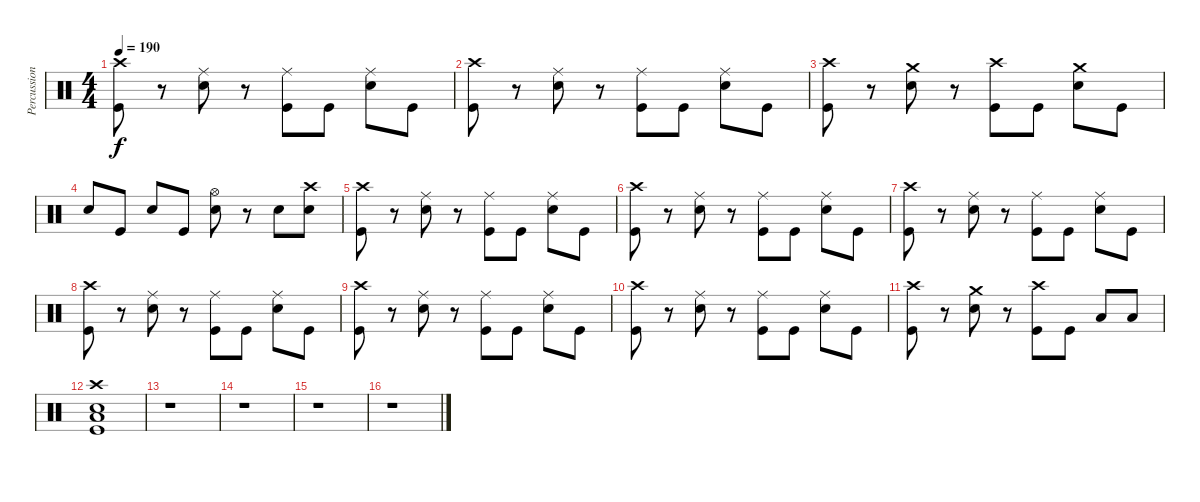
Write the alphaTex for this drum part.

\track ("Percussion" "Percussion") {instrument percussion}
\staff {score}
\articulation defaults
\ts (4 4)
\tempo 190
\clef neutral
\ks c
("Crash high (hit)" "Kick (hit)").8{dy f} r.8 ("Ride (middle)" "Electric Snare (hit)").8 r.8 ("Ride (middle)" "Kick (hit)").8 "Kick (hit)".8 ("Ride (middle)" "Electric Snare (hit)").8 "Kick (hit)".8 |
("Crash high (hit)" "Kick (hit)").8 r.8 ("Ride (middle)" "Electric Snare (hit)").8 r.8 ("Ride (middle)" "Kick (hit)").8 "Kick (hit)".8 ("Ride (middle)" "Electric Snare (hit)").8 "Kick (hit)".8 |
("Crash high (hit)" "Kick (hit)").8 r.8 ("Crash medium (hit)" "Electric Snare (hit)").8 r.8 ("Crash high (hit)" "Kick (hit)").8 "Kick (hit)".8 ("Crash medium (hit)" "Electric Snare (hit)").8 "Kick (hit)".8 |
"Electric Snare (hit)".8 "Kick (hit)".8 "Electric Snare (hit)".8 "Kick (hit)".8 ("Electric Snare (hit)" "Hi-Hat (open)").8 r.8 "Electric Snare (hit)".8 ("Electric Snare (hit)" "Crash high (hit)").8 |
("Crash high (hit)" "Kick (hit)").8 r.8 ("Ride (middle)" "Electric Snare (hit)").8 r.8 ("Ride (middle)" "Kick (hit)").8 "Kick (hit)".8 ("Ride (middle)" "Electric Snare (hit)").8 "Kick (hit)".8 |
("Crash high (hit)" "Kick (hit)").8 r.8 ("Ride (middle)" "Electric Snare (hit)").8 r.8 ("Ride (middle)" "Kick (hit)").8 "Kick (hit)".8 ("Ride (middle)" "Electric Snare (hit)").8 "Kick (hit)".8 |
("Crash high (hit)" "Kick (hit)").8 r.8 ("Ride (middle)" "Electric Snare (hit)").8 r.8 ("Ride (middle)" "Kick (hit)").8 "Kick (hit)".8 ("Ride (middle)" "Electric Snare (hit)").8 "Kick (hit)".8 |
("Crash high (hit)" "Kick (hit)").8 r.8 ("Ride (middle)" "Electric Snare (hit)").8 r.8 ("Ride (middle)" "Kick (hit)").8 "Kick (hit)".8 ("Ride (middle)" "Electric Snare (hit)").8 "Kick (hit)".8 |
("Crash high (hit)" "Kick (hit)").8 r.8 ("Ride (middle)" "Electric Snare (hit)").8 r.8 ("Ride (middle)" "Kick (hit)").8 "Kick (hit)".8 ("Ride (middle)" "Electric Snare (hit)").8 "Kick (hit)".8 |
("Crash high (hit)" "Kick (hit)").8 r.8 ("Ride (middle)" "Electric Snare (hit)").8 r.8 ("Ride (middle)" "Kick (hit)").8 "Kick (hit)".8 ("Ride (middle)" "Electric Snare (hit)").8 "Kick (hit)".8 |
("Crash high (hit)" "Kick (hit)").8 r.8 ("Crash medium (hit)" "Electric Snare (hit)").8 r.8 ("Crash high (hit)" "Kick (hit)").8 "Kick (hit)".8 "Low Tom (hit)".8 "Low Tom (hit)".8 |
("Crash high (hit)" "Low Floor Tom (hit)" "Electric Snare (hit)" "Kick (hit)").1 |
r.1 |
r.1 |
r.1 |
r.1
